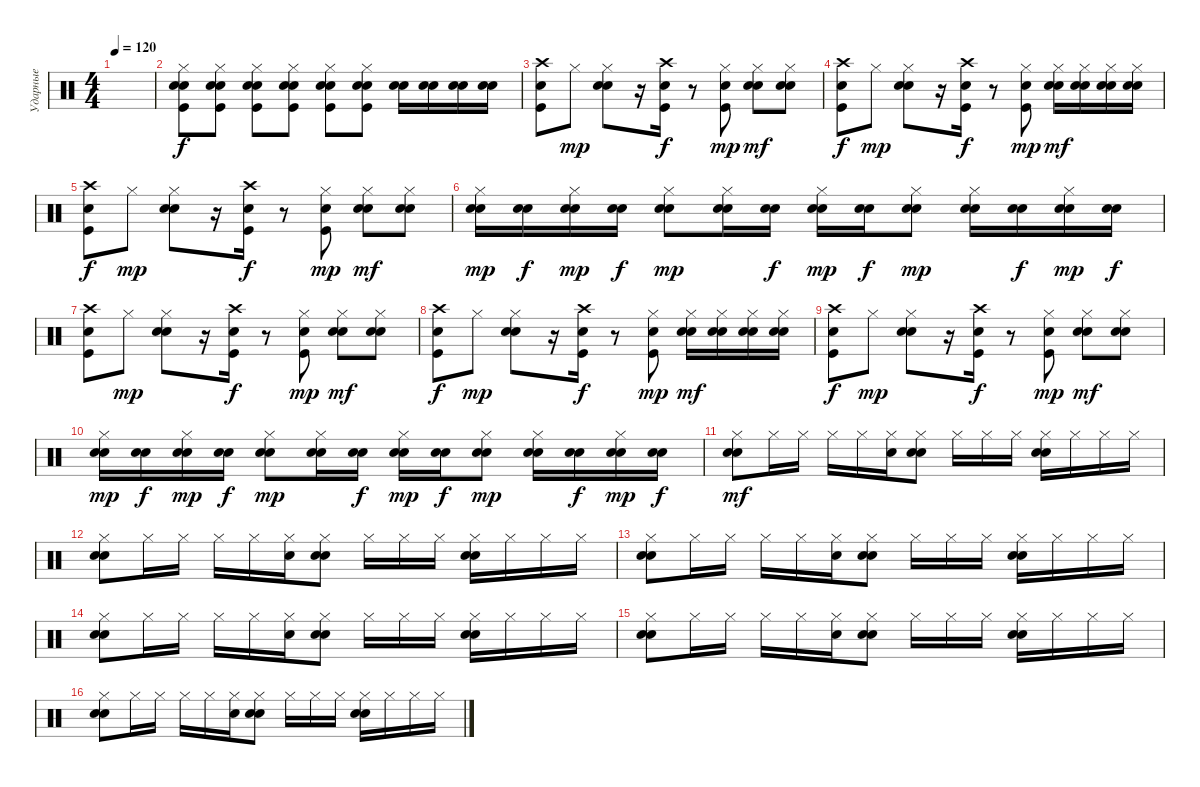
\track ("Ударные" "Ударные") {instrument percussion}
\staff {score}
\articulation defaults
\ts (4 4)
\tempo 120
\clef neutral
\ks c
|
("Hi-Hat (closed)" "Kick (hit)" "Snare (hit) 2" "Electric Snare (hit)").8 ("Hi-Hat (closed)" "Kick (hit)" "Snare (hit) 2" "Electric Snare (hit)").8 ("Hi-Hat (closed)" "Kick (hit)" "Snare (hit) 2" "Electric Snare (hit)").8 ("Hi-Hat (closed)" "Kick (hit)" "Snare (hit) 2" "Electric Snare (hit)").8 ("Hi-Hat (closed)" "Kick (hit)" "Snare (hit) 2" "Electric Snare (hit)").8 ("Hi-Hat (closed)" "Kick (hit)" "Snare (hit) 2" "Electric Snare (hit)").8 ("Electric Snare (hit)" "Electric Snare (hit)").16{dy f} ("Electric Snare (hit)" "Electric Snare (hit)").16 ("Electric Snare (hit)" "Electric Snare (hit)").16 ("Electric Snare (hit)" "Electric Snare (hit)").16 |
("Crash high (hit)" "Kick (hit)" "Snare (hit) 2").8 "Hi-Hat (closed)".8{dy mp} ("Hi-Hat (closed)" "Electric Snare (hit)" "Electric Snare (hit)").8 r.16 ("Crash high (hit)" "Kick (hit)" "Snare (hit) 2").16{dy f} r.8 ("Hi-Hat (closed)" "Kick (hit)" "Snare (hit) 2").8{dy mp} ("Hi-Hat (closed)" "Electric Snare (hit)" "Electric Snare (hit)").8{dy mf} ("Hi-Hat (closed)" "Electric Snare (hit)" "Electric Snare (hit)").8 |
("Crash high (hit)" "Kick (hit)" "Snare (hit) 2").8{dy f} "Hi-Hat (closed)".8{dy mp} ("Hi-Hat (closed)" "Electric Snare (hit)" "Electric Snare (hit)").8 r.16 ("Crash high (hit)" "Kick (hit)" "Snare (hit) 2").16{dy f} r.8 ("Hi-Hat (closed)" "Kick (hit)" "Snare (hit) 2").8{dy mp} ("Hi-Hat (closed)" "Electric Snare (hit)" "Electric Snare (hit)").16{dy mf} ("Hi-Hat (closed)" "Electric Snare (hit)" "Electric Snare (hit)").16 ("Hi-Hat (closed)" "Electric Snare (hit)" "Electric Snare (hit)").16 ("Hi-Hat (closed)" "Electric Snare (hit)" "Electric Snare (hit)").16 |
("Crash high (hit)" "Kick (hit)" "Snare (hit) 2").8{dy f} "Hi-Hat (closed)".8{dy mp} ("Hi-Hat (closed)" "Electric Snare (hit)" "Electric Snare (hit)").8 r.16 ("Crash high (hit)" "Kick (hit)" "Snare (hit) 2").16{dy f} r.8 ("Hi-Hat (closed)" "Kick (hit)" "Snare (hit) 2").8{dy mp} ("Hi-Hat (closed)" "Electric Snare (hit)" "Electric Snare (hit)").8{dy mf} ("Hi-Hat (closed)" "Electric Snare (hit)" "Electric Snare (hit)").8 |
("Hi-Hat (closed)" "Electric Snare (hit)" "Electric Snare (hit)").16{dy mp} ("Electric Snare (hit)" "Electric Snare (hit)").16{dy f} ("Hi-Hat (closed)" "Electric Snare (hit)" "Electric Snare (hit)").16{dy mp} ("Electric Snare (hit)" "Electric Snare (hit)").16{dy f} ("Hi-Hat (closed)" "Electric Snare (hit)" "Electric Snare (hit)").8{dy mp} ("Hi-Hat (closed)" "Electric Snare (hit)" "Electric Snare (hit)").16 ("Electric Snare (hit)" "Electric Snare (hit)").16{dy f} ("Hi-Hat (closed)" "Electric Snare (hit)" "Electric Snare (hit)").16{dy mp} ("Electric Snare (hit)" "Electric Snare (hit)").16{dy f} ("Hi-Hat (closed)" "Electric Snare (hit)" "Electric Snare (hit)").8{dy mp} ("Hi-Hat (closed)" "Electric Snare (hit)" "Electric Snare (hit)").16 ("Electric Snare (hit)" "Electric Snare (hit)").16{dy f} ("Hi-Hat (closed)" "Electric Snare (hit)" "Electric Snare (hit)").16{dy mp} ("Electric Snare (hit)" "Electric Snare (hit)").16{dy f} |
("Crash high (hit)" "Kick (hit)" "Snare (hit) 2").8 "Hi-Hat (closed)".8{dy mp} ("Hi-Hat (closed)" "Electric Snare (hit)" "Electric Snare (hit)").8 r.16 ("Crash high (hit)" "Kick (hit)" "Snare (hit) 2").16{dy f} r.8 ("Hi-Hat (closed)" "Kick (hit)" "Snare (hit) 2").8{dy mp} ("Hi-Hat (closed)" "Electric Snare (hit)" "Electric Snare (hit)").8{dy mf} ("Hi-Hat (closed)" "Electric Snare (hit)" "Electric Snare (hit)").8 |
("Crash high (hit)" "Kick (hit)" "Snare (hit) 2").8{dy f} "Hi-Hat (closed)".8{dy mp} ("Hi-Hat (closed)" "Electric Snare (hit)" "Electric Snare (hit)").8 r.16 ("Crash high (hit)" "Kick (hit)" "Snare (hit) 2").16{dy f} r.8 ("Hi-Hat (closed)" "Kick (hit)" "Snare (hit) 2").8{dy mp} ("Hi-Hat (closed)" "Electric Snare (hit)" "Electric Snare (hit)").16{dy mf} ("Hi-Hat (closed)" "Electric Snare (hit)" "Electric Snare (hit)").16 ("Hi-Hat (closed)" "Electric Snare (hit)" "Electric Snare (hit)").16 ("Hi-Hat (closed)" "Electric Snare (hit)" "Electric Snare (hit)").16 |
("Crash high (hit)" "Kick (hit)" "Snare (hit) 2").8{dy f} "Hi-Hat (closed)".8{dy mp} ("Hi-Hat (closed)" "Electric Snare (hit)" "Electric Snare (hit)").8 r.16 ("Crash high (hit)" "Kick (hit)" "Snare (hit) 2").16{dy f} r.8 ("Hi-Hat (closed)" "Kick (hit)" "Snare (hit) 2").8{dy mp} ("Hi-Hat (closed)" "Electric Snare (hit)" "Electric Snare (hit)").8{dy mf} ("Hi-Hat (closed)" "Electric Snare (hit)" "Electric Snare (hit)").8 |
("Hi-Hat (closed)" "Electric Snare (hit)" "Electric Snare (hit)").16{dy mp} ("Electric Snare (hit)" "Electric Snare (hit)").16{dy f} ("Hi-Hat (closed)" "Electric Snare (hit)" "Electric Snare (hit)").16{dy mp} ("Electric Snare (hit)" "Electric Snare (hit)").16{dy f} ("Hi-Hat (closed)" "Electric Snare (hit)" "Electric Snare (hit)").8{dy mp} ("Hi-Hat (closed)" "Electric Snare (hit)" "Electric Snare (hit)").16 ("Electric Snare (hit)" "Electric Snare (hit)").16{dy f} ("Hi-Hat (closed)" "Electric Snare (hit)" "Electric Snare (hit)").16{dy mp} ("Electric Snare (hit)" "Electric Snare (hit)").16{dy f} ("Hi-Hat (closed)" "Electric Snare (hit)" "Electric Snare (hit)").8{dy mp} ("Hi-Hat (closed)" "Electric Snare (hit)" "Electric Snare (hit)").16 ("Electric Snare (hit)" "Electric Snare (hit)").16{dy f} ("Hi-Hat (closed)" "Electric Snare (hit)" "Electric Snare (hit)").16{dy mp} ("Electric Snare (hit)" "Electric Snare (hit)").16{dy f} |
("Hi-Hat (closed)" "Electric Snare (hit)" "Electric Snare (hit)").8{dy mf} "Hi-Hat (closed)".16 "Hi-Hat (closed)".16 "Hi-Hat (closed)".16 "Hi-Hat (closed)".16 ("Hi-Hat (closed)" "Electric Snare (hit)").16 ("Hi-Hat (closed)" "Electric Snare (hit)" "Electric Snare (hit)").8 "Hi-Hat (closed)".16 "Hi-Hat (closed)".16 "Hi-Hat (closed)".16 ("Hi-Hat (closed)" "Electric Snare (hit)" "Electric Snare (hit)").16 "Hi-Hat (closed)".16 "Hi-Hat (closed)".16 "Hi-Hat (closed)".16 |
("Hi-Hat (closed)" "Electric Snare (hit)" "Electric Snare (hit)").8 "Hi-Hat (closed)".16 "Hi-Hat (closed)".16 "Hi-Hat (closed)".16 "Hi-Hat (closed)".16 ("Hi-Hat (closed)" "Electric Snare (hit)").16 ("Hi-Hat (closed)" "Electric Snare (hit)" "Electric Snare (hit)").8 "Hi-Hat (closed)".16 "Hi-Hat (closed)".16 "Hi-Hat (closed)".16 ("Hi-Hat (closed)" "Electric Snare (hit)" "Electric Snare (hit)").16 "Hi-Hat (closed)".16 "Hi-Hat (closed)".16 "Hi-Hat (closed)".16 |
("Hi-Hat (closed)" "Electric Snare (hit)" "Electric Snare (hit)").8 "Hi-Hat (closed)".16 "Hi-Hat (closed)".16 "Hi-Hat (closed)".16 "Hi-Hat (closed)".16 ("Hi-Hat (closed)" "Electric Snare (hit)").16 ("Hi-Hat (closed)" "Electric Snare (hit)" "Electric Snare (hit)").8 "Hi-Hat (closed)".16 "Hi-Hat (closed)".16 "Hi-Hat (closed)".16 ("Hi-Hat (closed)" "Electric Snare (hit)" "Electric Snare (hit)").16 "Hi-Hat (closed)".16 "Hi-Hat (closed)".16 "Hi-Hat (closed)".16 |
("Hi-Hat (closed)" "Electric Snare (hit)" "Electric Snare (hit)").8 "Hi-Hat (closed)".16 "Hi-Hat (closed)".16 "Hi-Hat (closed)".16 "Hi-Hat (closed)".16 ("Hi-Hat (closed)" "Electric Snare (hit)").16 ("Hi-Hat (closed)" "Electric Snare (hit)" "Electric Snare (hit)").8 "Hi-Hat (closed)".16 "Hi-Hat (closed)".16 "Hi-Hat (closed)".16 ("Hi-Hat (closed)" "Electric Snare (hit)" "Electric Snare (hit)").16 "Hi-Hat (closed)".16 "Hi-Hat (closed)".16 "Hi-Hat (closed)".16 |
("Hi-Hat (closed)" "Electric Snare (hit)" "Electric Snare (hit)").8 "Hi-Hat (closed)".16 "Hi-Hat (closed)".16 "Hi-Hat (closed)".16 "Hi-Hat (closed)".16 ("Hi-Hat (closed)" "Electric Snare (hit)").16 ("Hi-Hat (closed)" "Electric Snare (hit)" "Electric Snare (hit)").8 "Hi-Hat (closed)".16 "Hi-Hat (closed)".16 "Hi-Hat (closed)".16 ("Hi-Hat (closed)" "Electric Snare (hit)" "Electric Snare (hit)").16 "Hi-Hat (closed)".16 "Hi-Hat (closed)".16 "Hi-Hat (closed)".16 |
("Hi-Hat (closed)" "Electric Snare (hit)" "Electric Snare (hit)").8 "Hi-Hat (closed)".16 "Hi-Hat (closed)".16 "Hi-Hat (closed)".16 "Hi-Hat (closed)".16 ("Hi-Hat (closed)" "Electric Snare (hit)").16 ("Hi-Hat (closed)" "Electric Snare (hit)" "Electric Snare (hit)").8 "Hi-Hat (closed)".16 "Hi-Hat (closed)".16 "Hi-Hat (closed)".16 ("Hi-Hat (closed)" "Electric Snare (hit)" "Electric Snare (hit)").16 "Hi-Hat (closed)".16 "Hi-Hat (closed)".16 "Hi-Hat (closed)".16
